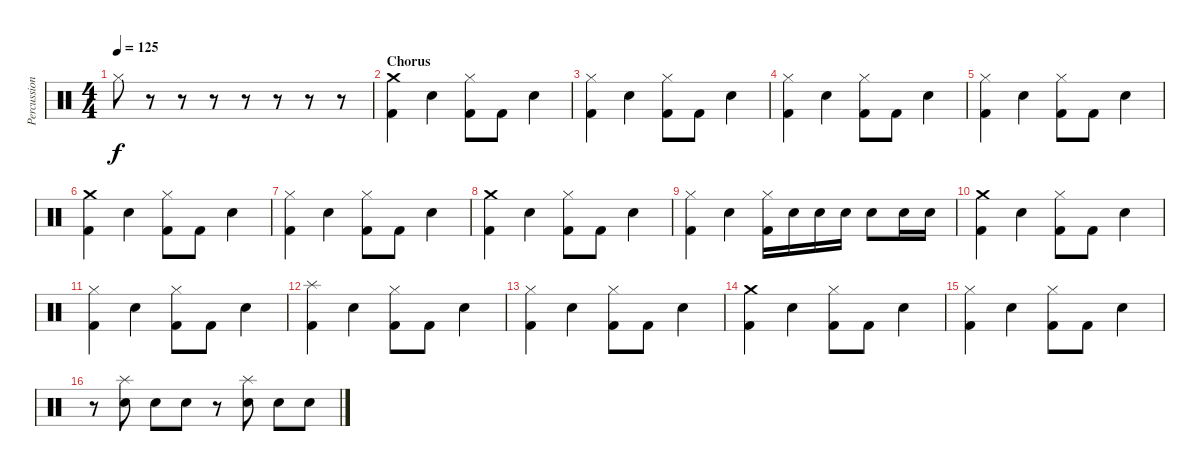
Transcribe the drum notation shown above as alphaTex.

\track ("Percussion" "Percussion") {instrument percussion}
\staff {score}
\articulation defaults
\ts (4 4)
\tempo 125
\clef neutral
\ks c "Hi-Hat (closed)".8{dy f}
r.8 r.8 r.8 r.8 r.8 r.8 r.8 |
\section ("" "Chorus")
("Crash medium (hit)" "Kick (hit) 2").4 "Snare (hit) 2".4 ("Hi-Hat (closed)" "Kick (hit) 2").8 "Kick (hit) 2".8 "Snare (hit) 2".4 |
("Hi-Hat (closed)" "Kick (hit) 2").4 "Snare (hit) 2".4 ("Hi-Hat (closed)" "Kick (hit) 2").8 "Kick (hit) 2".8 "Snare (hit) 2".4 |
("Hi-Hat (closed)" "Kick (hit) 2").4 "Snare (hit) 2".4 ("Hi-Hat (closed)" "Kick (hit) 2").8 "Kick (hit) 2".8 "Snare (hit) 2".4 |
("Hi-Hat (closed)" "Kick (hit) 2").4 "Snare (hit) 2".4 ("Hi-Hat (closed)" "Kick (hit) 2").8 "Kick (hit) 2".8 "Snare (hit) 2".4 |
("Crash medium (hit)" "Kick (hit) 2").4 "Snare (hit) 2".4 ("Hi-Hat (closed)" "Kick (hit) 2").8 "Kick (hit) 2".8 "Snare (hit) 2".4 |
("Hi-Hat (closed)" "Kick (hit) 2").4 "Snare (hit) 2".4 ("Hi-Hat (closed)" "Kick (hit) 2").8 "Kick (hit) 2".8 "Snare (hit) 2".4 |
("Crash medium (hit)" "Kick (hit) 2").4 "Snare (hit) 2".4 ("Hi-Hat (closed)" "Kick (hit) 2").8 "Kick (hit) 2".8 "Snare (hit) 2".4 |
("Hi-Hat (closed)" "Kick (hit) 2").4 "Snare (hit) 2".4 ("Hi-Hat (closed)" "Kick (hit) 2").16 "Snare (hit) 2".16 "Snare (hit) 2".16 "Snare (hit) 2".16 "Snare (hit) 2".8 "Snare (hit) 2".16 "Snare (hit) 2".16 |
("Crash medium (hit)" "Kick (hit) 2").4 "Snare (hit) 2".4 ("Hi-Hat (closed)" "Kick (hit) 2").8 "Kick (hit) 2".8 "Snare (hit) 2".4 |
("Hi-Hat (closed)" "Kick (hit) 2").4 "Snare (hit) 2".4 ("Hi-Hat (closed)" "Kick (hit) 2").8 "Kick (hit) 2".8 "Snare (hit) 2".4 |
("Splash (hit)" "Kick (hit) 2").4 "Snare (hit) 2".4 ("Hi-Hat (closed)" "Kick (hit) 2").8 "Kick (hit) 2".8 "Snare (hit) 2".4 |
("Hi-Hat (closed)" "Kick (hit) 2").4 "Snare (hit) 2".4 ("Hi-Hat (closed)" "Kick (hit) 2").8 "Kick (hit) 2".8 "Snare (hit) 2".4 |
("Crash medium (hit)" "Kick (hit) 2").4 "Snare (hit) 2".4 ("Hi-Hat (closed)" "Kick (hit) 2").8 "Kick (hit) 2".8 "Snare (hit) 2".4 |
("Hi-Hat (closed)" "Kick (hit) 2").4 "Snare (hit) 2".4 ("Hi-Hat (closed)" "Kick (hit) 2").8 "Kick (hit) 2".8 "Snare (hit) 2".4 |
r.8 ("Splash (hit)" "Snare (hit) 2").8 "Snare (hit) 2".8 "Snare (hit) 2".8 r.8 ("Splash (hit)" "Snare (hit) 2").8 "Snare (hit) 2".8 "Snare (hit) 2".8
